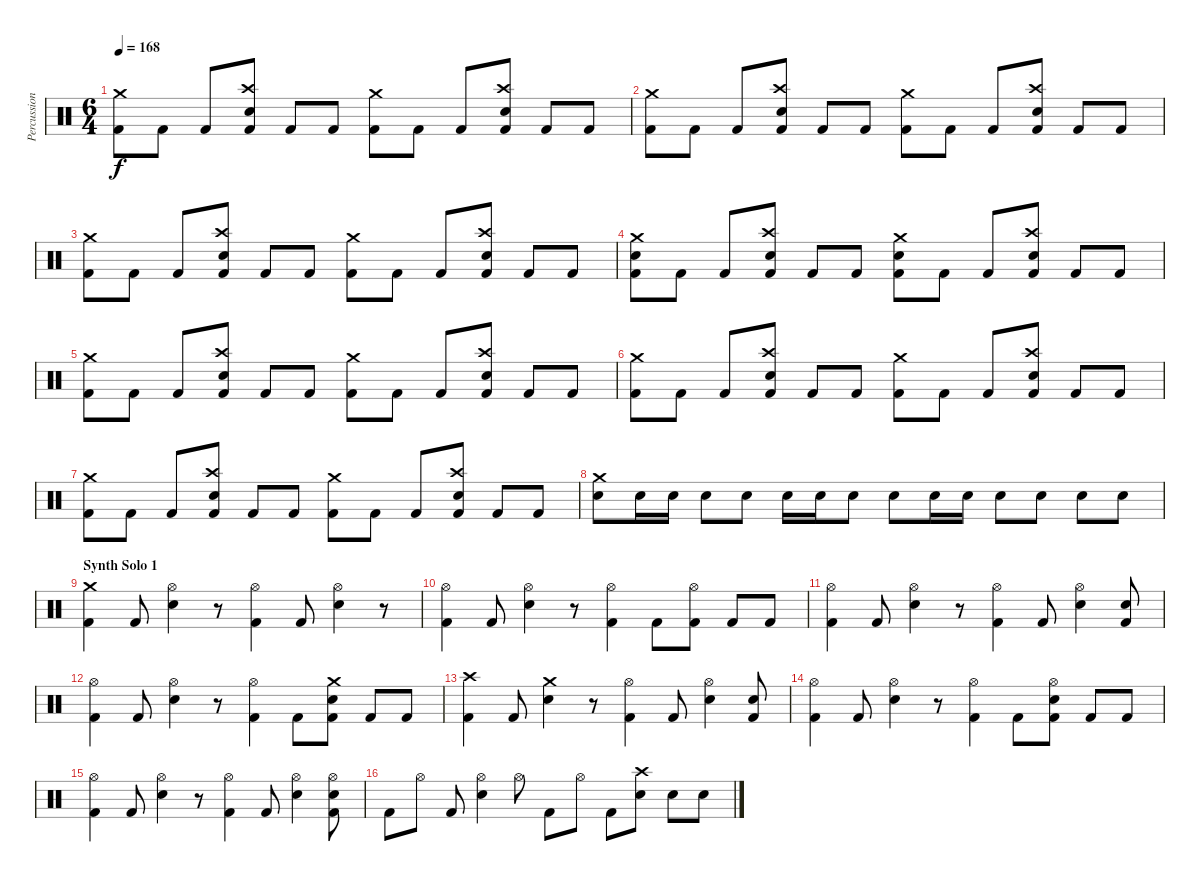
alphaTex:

\track ("Percussion" "Percussion") {instrument percussion}
\staff {score}
\articulation defaults
\ts (6 4)
\tempo 168
\clef neutral
\ks c
("Crash medium (hit)" "Kick (hit) 2").8{dy f} "Kick (hit) 2".8 "Kick (hit) 2".8 ("Crash high (hit)" "Electric Snare (hit)" "Kick (hit) 2").8 "Kick (hit) 2".8 "Kick (hit) 2".8 ("Crash medium (hit)" "Kick (hit) 2").8 "Kick (hit) 2".8 "Kick (hit) 2".8 ("Crash high (hit)" "Electric Snare (hit)" "Kick (hit) 2").8 "Kick (hit) 2".8 "Kick (hit) 2".8 |
("Crash medium (hit)" "Kick (hit) 2").8 "Kick (hit) 2".8 "Kick (hit) 2".8 ("Crash high (hit)" "Electric Snare (hit)" "Kick (hit) 2").8 "Kick (hit) 2".8 "Kick (hit) 2".8 ("Crash medium (hit)" "Kick (hit) 2").8 "Kick (hit) 2".8 "Kick (hit) 2".8 ("Crash high (hit)" "Electric Snare (hit)" "Kick (hit) 2").8 "Kick (hit) 2".8 "Kick (hit) 2".8 |
("Crash medium (hit)" "Kick (hit) 2").8 "Kick (hit) 2".8 "Kick (hit) 2".8 ("Crash high (hit)" "Electric Snare (hit)" "Kick (hit) 2").8 "Kick (hit) 2".8 "Kick (hit) 2".8 ("Crash medium (hit)" "Kick (hit) 2").8 "Kick (hit) 2".8 "Kick (hit) 2".8 ("Crash high (hit)" "Electric Snare (hit)" "Kick (hit) 2").8 "Kick (hit) 2".8 "Kick (hit) 2".8 |
("Crash medium (hit)" "Electric Snare (hit)" "Kick (hit) 2").8 "Kick (hit) 2".8 "Kick (hit) 2".8 ("Crash high (hit)" "Electric Snare (hit)" "Kick (hit) 2").8 "Kick (hit) 2".8 "Kick (hit) 2".8 ("Crash medium (hit)" "Electric Snare (hit)" "Kick (hit) 2").8 "Kick (hit) 2".8 "Kick (hit) 2".8 ("Crash high (hit)" "Electric Snare (hit)" "Kick (hit) 2").8 "Kick (hit) 2".8 "Kick (hit) 2".8 |
("Crash medium (hit)" "Kick (hit) 2").8 "Kick (hit) 2".8 "Kick (hit) 2".8 ("Crash high (hit)" "Electric Snare (hit)" "Kick (hit) 2").8 "Kick (hit) 2".8 "Kick (hit) 2".8 ("Crash medium (hit)" "Kick (hit) 2").8 "Kick (hit) 2".8 "Kick (hit) 2".8 ("Crash high (hit)" "Electric Snare (hit)" "Kick (hit) 2").8 "Kick (hit) 2".8 "Kick (hit) 2".8 |
("Crash medium (hit)" "Kick (hit) 2").8 "Kick (hit) 2".8 "Kick (hit) 2".8 ("Crash high (hit)" "Electric Snare (hit)" "Kick (hit) 2").8 "Kick (hit) 2".8 "Kick (hit) 2".8 ("Crash medium (hit)" "Kick (hit) 2").8 "Kick (hit) 2".8 "Kick (hit) 2".8 ("Crash high (hit)" "Electric Snare (hit)" "Kick (hit) 2").8 "Kick (hit) 2".8 "Kick (hit) 2".8 |
("Crash medium (hit)" "Kick (hit) 2").8 "Kick (hit) 2".8 "Kick (hit) 2".8 ("Crash high (hit)" "Electric Snare (hit)" "Kick (hit) 2").8 "Kick (hit) 2".8 "Kick (hit) 2".8 ("Crash medium (hit)" "Kick (hit) 2").8 "Kick (hit) 2".8 "Kick (hit) 2".8 ("Crash high (hit)" "Electric Snare (hit)" "Kick (hit) 2").8 "Kick (hit) 2".8 "Kick (hit) 2".8 |
("Crash medium (hit)" "Electric Snare (hit)").8 "Electric Snare (hit)".16 "Electric Snare (hit)".16 "Electric Snare (hit)".8 "Electric Snare (hit)".8 "Electric Snare (hit)".16 "Electric Snare (hit)".16 "Electric Snare (hit)".8 "Electric Snare (hit)".8 "Electric Snare (hit)".16 "Electric Snare (hit)".16 "Electric Snare (hit)".8 "Electric Snare (hit)".8 "Electric Snare (hit)".8 "Electric Snare (hit)".8 |
\section ("" "Synth Solo 1")
("Crash medium (hit)" "Kick (hit) 2").4 "Kick (hit) 2".8 ("Hi-Hat (open)" "Electric Snare (hit)").4 r.8 ("Hi-Hat (open)" "Kick (hit) 2").4 "Kick (hit) 2".8 ("Hi-Hat (open)" "Electric Snare (hit)").4 r.8 |
("Hi-Hat (open)" "Kick (hit) 2").4 "Kick (hit) 2".8 ("Hi-Hat (open)" "Electric Snare (hit)").4 r.8 ("Hi-Hat (open)" "Kick (hit) 2").4 "Kick (hit) 2".8 ("Hi-Hat (open)" "Kick (hit) 2").8 "Kick (hit) 2".8 "Kick (hit) 2".8 |
("Hi-Hat (open)" "Kick (hit) 2").4 "Kick (hit) 2".8 ("Hi-Hat (open)" "Electric Snare (hit)").4 r.8 ("Hi-Hat (open)" "Kick (hit) 2").4 "Kick (hit) 2".8 ("Hi-Hat (open)" "Electric Snare (hit)").4 ("Electric Snare (hit)" "Kick (hit) 2").8 |
("Hi-Hat (open)" "Kick (hit) 2").4 "Kick (hit) 2".8 ("Hi-Hat (open)" "Electric Snare (hit)").4 r.8 ("Hi-Hat (open)" "Kick (hit) 2").4 "Kick (hit) 2".8 ("Crash medium (hit)" "Electric Snare (hit)" "Kick (hit) 2").8 "Kick (hit) 2".8 "Kick (hit) 2".8 |
("Crash high (hit)" "Kick (hit) 2").4 "Kick (hit) 2".8 ("Crash medium (hit)" "Electric Snare (hit)").4 r.8 ("Hi-Hat (open)" "Kick (hit) 2").4 "Kick (hit) 2".8 ("Hi-Hat (open)" "Electric Snare (hit)").4 ("Electric Snare (hit)" "Kick (hit) 2").8 |
("Hi-Hat (open)" "Kick (hit) 2").4 "Kick (hit) 2".8 ("Hi-Hat (open)" "Electric Snare (hit)").4 r.8 ("Hi-Hat (open)" "Kick (hit) 2").4 "Kick (hit) 2".8 ("Hi-Hat (open)" "Electric Snare (hit)" "Kick (hit) 2").8 "Kick (hit) 2".8 "Kick (hit) 2".8 |
("Hi-Hat (open)" "Kick (hit) 2").4 "Kick (hit) 2".8 ("Hi-Hat (open)" "Electric Snare (hit)").4 r.8 ("Hi-Hat (open)" "Kick (hit) 2").4 "Kick (hit) 2".8 ("Hi-Hat (open)" "Electric Snare (hit)").4 ("Hi-Hat (open)" "Electric Snare (hit)" "Kick (hit) 2").8 |
"Kick (hit) 2".8 "Hi-Hat (open)".8 "Kick (hit) 2".8 ("Hi-Hat (open)" "Electric Snare (hit)").4 "Hi-Hat (open)".8 "Kick (hit) 2".8 "Hi-Hat (open)".8 "Kick (hit) 2".8 ("Crash high (hit)" "Electric Snare (hit)").8 "Electric Snare (hit)".8 "Electric Snare (hit)".8
